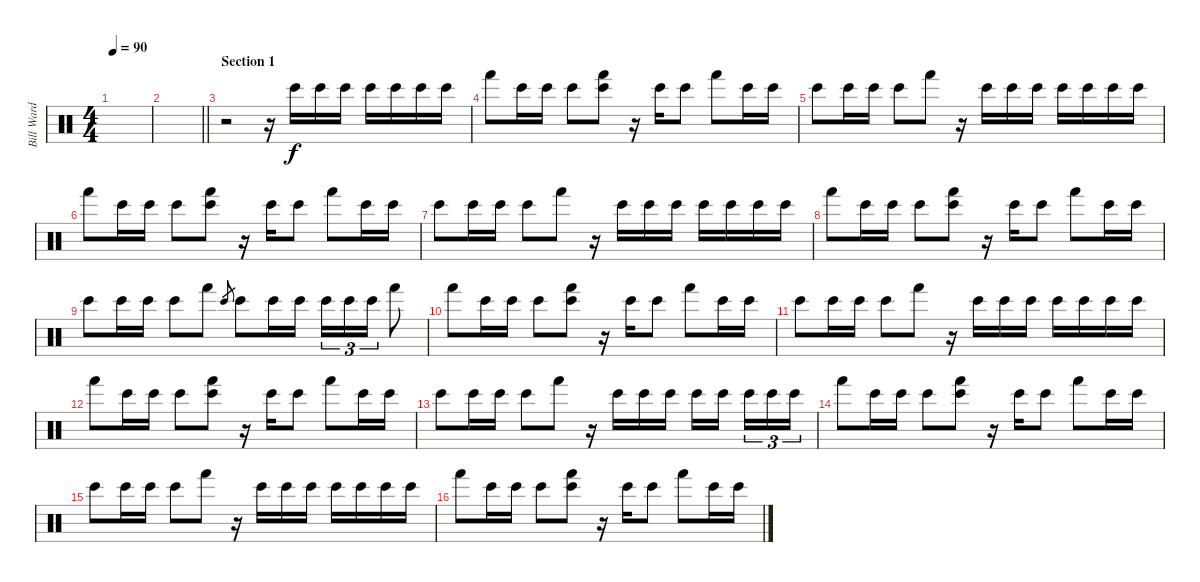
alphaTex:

\track ("Bill Ward" "Bill Ward") {instrument percussion}
\staff {score}
\articulation defaults
\ts (4 4)
\tempo 90
\clef neutral
\ks c
|
\barLineRight lightlight
|
\section ("" "Section 1")
r.2 r.16 "Bongo High (hit)".16{volume 0} "Bongo High (hit)".16{volume 3} "Bongo High (hit)".16{volume 6} "Bongo High (hit)".16{volume 9} "Bongo High (hit)".16{volume 12} "Bongo High (hit)".16{volume 11} "Bongo High (hit)".16 |
"Hand (hit)".8 "Bongo High (hit)".16 "Bongo High (hit)".16 "Bongo High (hit)".8 ("Bongo High (hit)" "Hand (hit)").8 r.16 "Bongo High (hit)".16 "Bongo High (hit)".8 "Hand (hit)".8 "Bongo High (hit)".16 "Bongo High (hit)".16 |
"Bongo High (hit)".8 "Bongo High (hit)".16 "Bongo High (hit)".16 "Bongo High (hit)".8 "Hand (hit)".8 r.16 "Bongo High (hit)".16 "Bongo High (hit)".16 "Bongo High (hit)".16 "Bongo High (hit)".16 "Bongo High (hit)".16 "Bongo High (hit)".16 "Bongo High (hit)".16 |
"Hand (hit)".8 "Bongo High (hit)".16 "Bongo High (hit)".16 "Bongo High (hit)".8 ("Bongo High (hit)" "Hand (hit)").8 r.16 "Bongo High (hit)".16 "Bongo High (hit)".8 "Hand (hit)".8 "Bongo High (hit)".16 "Bongo High (hit)".16 |
"Bongo High (hit)".8 "Bongo High (hit)".16 "Bongo High (hit)".16 "Bongo High (hit)".8 "Hand (hit)".8 r.16 "Bongo High (hit)".16 "Bongo High (hit)".16 "Bongo High (hit)".16 "Bongo High (hit)".16 "Bongo High (hit)".16 "Bongo High (hit)".16 "Bongo High (hit)".16 |
"Hand (hit)".8 "Bongo High (hit)".16 "Bongo High (hit)".16 "Bongo High (hit)".8 ("Bongo High (hit)" "Hand (hit)").8 r.16 "Bongo High (hit)".16 "Bongo High (hit)".8 "Hand (hit)".8 "Bongo High (hit)".16 "Bongo High (hit)".16 |
"Bongo High (hit)".8 "Bongo High (hit)".16 "Bongo High (hit)".16 "Bongo High (hit)".8 "Hand (hit)".8 "Bongo High (hit)".8{gr} "Bongo High (hit)".8 "Bongo High (hit)".16 "Bongo High (hit)".16 "Bongo High (hit)".16{tu (3 2)} "Bongo High (hit)".16{tu (3 2)} "Bongo High (hit)".16{tu (3 2)} "Hand (hit)".8 |
"Hand (hit)".8 "Bongo High (hit)".16 "Bongo High (hit)".16 "Bongo High (hit)".8 ("Bongo High (hit)" "Hand (hit)").8 r.16 "Bongo High (hit)".16 "Bongo High (hit)".8 "Hand (hit)".8 "Bongo High (hit)".16 "Bongo High (hit)".16 |
"Bongo High (hit)".8 "Bongo High (hit)".16 "Bongo High (hit)".16 "Bongo High (hit)".8 "Hand (hit)".8 r.16 "Bongo High (hit)".16 "Bongo High (hit)".16 "Bongo High (hit)".16 "Bongo High (hit)".16 "Bongo High (hit)".16 "Bongo High (hit)".16 "Bongo High (hit)".16 |
"Hand (hit)".8 "Bongo High (hit)".16 "Bongo High (hit)".16 "Bongo High (hit)".8 ("Bongo High (hit)" "Hand (hit)").8 r.16 "Bongo High (hit)".16 "Bongo High (hit)".8 "Hand (hit)".8 "Bongo High (hit)".16 "Bongo High (hit)".16 |
"Bongo High (hit)".8 "Bongo High (hit)".16 "Bongo High (hit)".16 "Bongo High (hit)".8 "Hand (hit)".8 r.16 "Bongo High (hit)".16 "Bongo High (hit)".16 "Bongo High (hit)".16 "Bongo High (hit)".16 "Bongo High (hit)".16 "Bongo High (hit)".16{tu (3 2)} "Bongo High (hit)".16{tu (3 2)} "Bongo High (hit)".16{tu (3 2)} |
"Hand (hit)".8 "Bongo High (hit)".16 "Bongo High (hit)".16 "Bongo High (hit)".8 ("Bongo High (hit)" "Hand (hit)").8 r.16 "Bongo High (hit)".16 "Bongo High (hit)".8 "Hand (hit)".8 "Bongo High (hit)".16 "Bongo High (hit)".16 |
"Bongo High (hit)".8 "Bongo High (hit)".16 "Bongo High (hit)".16 "Bongo High (hit)".8 "Hand (hit)".8 r.16 "Bongo High (hit)".16 "Bongo High (hit)".16 "Bongo High (hit)".16 "Bongo High (hit)".16 "Bongo High (hit)".16 "Bongo High (hit)".16 "Bongo High (hit)".16 |
"Hand (hit)".8 "Bongo High (hit)".16 "Bongo High (hit)".16 "Bongo High (hit)".8 ("Bongo High (hit)" "Hand (hit)").8 r.16 "Bongo High (hit)".16 "Bongo High (hit)".8 "Hand (hit)".8 "Bongo High (hit)".16 "Bongo High (hit)".16
